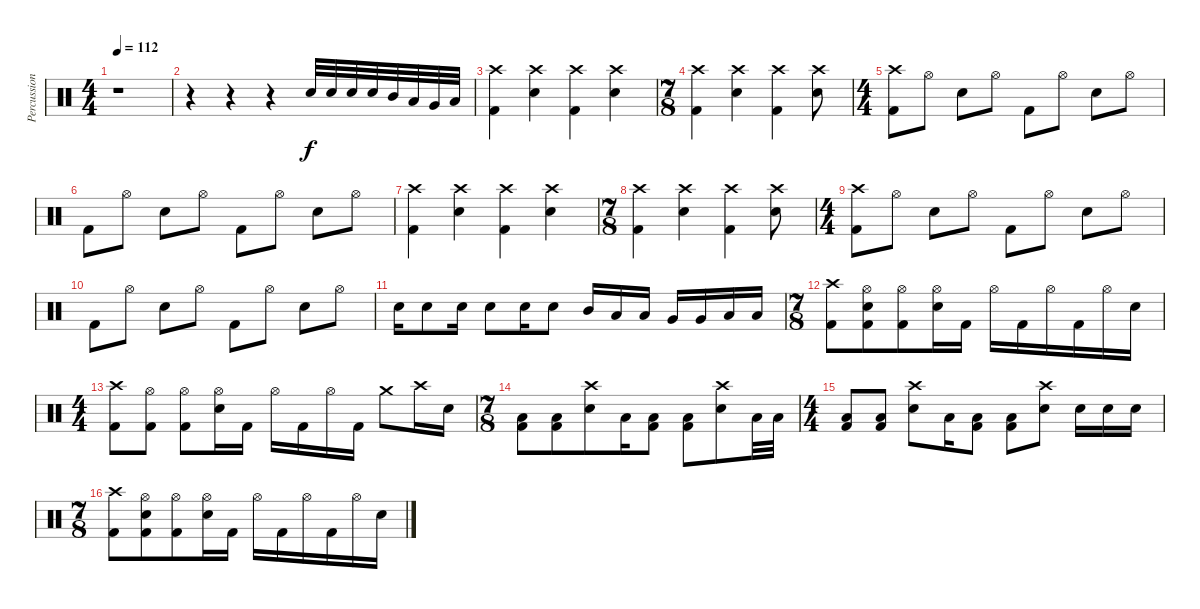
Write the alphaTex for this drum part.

\track ("Percussion" "Percussion") {instrument percussion}
\staff {score}
\articulation defaults
\ts (4 4)
\tempo 112
\clef neutral
\ks c
r.1{dy f} |
r.4 r.4 r.4 "Electric Snare (hit)".32 "Electric Snare (hit)".32 "Electric Snare (hit)".32 "Electric Snare (hit)".32 "Mid Tom (hit)".32 "Low Tom (hit)".32 "Very Low Tom (hit)".32 "Low Floor Tom (hit)".32 |
("Crash high (hit)" "Kick (hit) 2").4 ("Crash high (hit)" "Snare (hit) 2").4 ("Crash high (hit)" "Kick (hit) 2").4 ("Crash high (hit)" "Snare (hit) 2").4 |
\ts (7 8)
("Crash high (hit)" "Kick (hit) 2").4 ("Crash high (hit)" "Snare (hit) 2").4 ("Crash high (hit)" "Kick (hit) 2").4 ("Crash high (hit)" "Snare (hit) 2").8 |
\ts (4 4)
("Crash high (hit)" "Kick (hit) 2").8 "Hi-Hat (open)".8 "Snare (hit) 2".8 "Hi-Hat (open)".8 "Kick (hit) 2".8 "Hi-Hat (open)".8 "Snare (hit) 2".8 "Hi-Hat (open)".8 |
"Kick (hit) 2".8 "Hi-Hat (open)".8 "Snare (hit) 2".8 "Hi-Hat (open)".8 "Kick (hit) 2".8 "Hi-Hat (open)".8 "Snare (hit) 2".8 "Hi-Hat (open)".8 |
("Crash high (hit)" "Kick (hit) 2").4 ("Crash high (hit)" "Snare (hit) 2").4 ("Crash high (hit)" "Kick (hit) 2").4 ("Crash high (hit)" "Snare (hit) 2").4 |
\ts (7 8)
("Crash high (hit)" "Kick (hit) 2").4 ("Crash high (hit)" "Snare (hit) 2").4 ("Crash high (hit)" "Kick (hit) 2").4 ("Crash high (hit)" "Snare (hit) 2").8 |
\ts (4 4)
("Crash high (hit)" "Kick (hit) 2").8 "Hi-Hat (open)".8 "Snare (hit) 2".8 "Hi-Hat (open)".8 "Kick (hit) 2".8 "Hi-Hat (open)".8 "Snare (hit) 2".8 "Hi-Hat (open)".8 |
"Kick (hit) 2".8 "Hi-Hat (open)".8 "Snare (hit) 2".8 "Hi-Hat (open)".8 "Kick (hit) 2".8 "Hi-Hat (open)".8 "Snare (hit) 2".8 "Hi-Hat (open)".8 |
"Snare (hit) 2".16 "Snare (hit) 2".8 "Snare (hit) 2".16 "Snare (hit) 2".8 "Snare (hit) 2".16 "Snare (hit) 2".8 "Mid Tom (hit)".16 "Low Tom (hit)".16 "Low Tom (hit)".16 "Very Low Tom (hit)".16 "Very Low Tom (hit)".16 "Low Floor Tom (hit)".16 "Low Floor Tom (hit)".16 |
\ts (7 8)
("Crash high (hit)" "Kick (hit) 2").8 ("Hi-Hat (open)" "Snare (hit) 2" "Kick (hit) 2").8 ("Hi-Hat (open)" "Kick (hit) 2").8 ("Hi-Hat (open)" "Snare (hit) 2").16 "Kick (hit) 2".16 "Hi-Hat (open)".16 "Kick (hit) 2".16 "Hi-Hat (open)".16 "Kick (hit) 2".16 "Hi-Hat (open)".16 "Snare (hit) 2".16 |
\ts (4 4)
("Crash high (hit)" "Kick (hit) 2").8 ("Hi-Hat (open)" "Kick (hit) 2").8 ("Hi-Hat (open)" "Kick (hit) 2").8 ("Hi-Hat (open)" "Snare (hit) 2").16 "Kick (hit) 2".16 "Hi-Hat (open)".16 "Kick (hit) 2".16 "Hi-Hat (open)".16 "Kick (hit) 2".16 "Crash medium (hit)".8 "Crash high (hit)".16 "Snare (hit) 2".16 |
\ts (7 8)
("Low Floor Tom (hit)" "Kick (hit) 2").8 ("Low Floor Tom (hit)" "Kick (hit) 2").8 ("Crash high (hit)" "Snare (hit) 2").8 "Low Tom (hit)".16 ("Low Floor Tom (hit)" "Kick (hit) 2").8 ("Low Floor Tom (hit)" "Kick (hit) 2").8 ("Crash high (hit)" "Snare (hit) 2").8 "Low Tom (hit)".32 "Low Tom (hit)".32 |
\ts (4 4)
("Low Floor Tom (hit)" "Kick (hit) 2").8 ("Low Floor Tom (hit)" "Kick (hit) 2").8 ("Crash high (hit)" "Snare (hit) 2").8 "Low Tom (hit)".16 ("Low Floor Tom (hit)" "Kick (hit) 2").8 ("Low Floor Tom (hit)" "Kick (hit) 2").8 ("Crash high (hit)" "Snare (hit) 2").8 "Snare (hit) 2".16 "Snare (hit) 2".16 "Snare (hit) 2".16 |
\ts (7 8)
("Crash high (hit)" "Kick (hit) 2").8 ("Hi-Hat (open)" "Snare (hit) 2" "Kick (hit) 2").8 ("Hi-Hat (open)" "Kick (hit) 2").8 ("Hi-Hat (open)" "Snare (hit) 2").16 "Kick (hit) 2".16 "Hi-Hat (open)".16 "Kick (hit) 2".16 "Hi-Hat (open)".16 "Kick (hit) 2".16 "Hi-Hat (open)".16 "Snare (hit) 2".16
